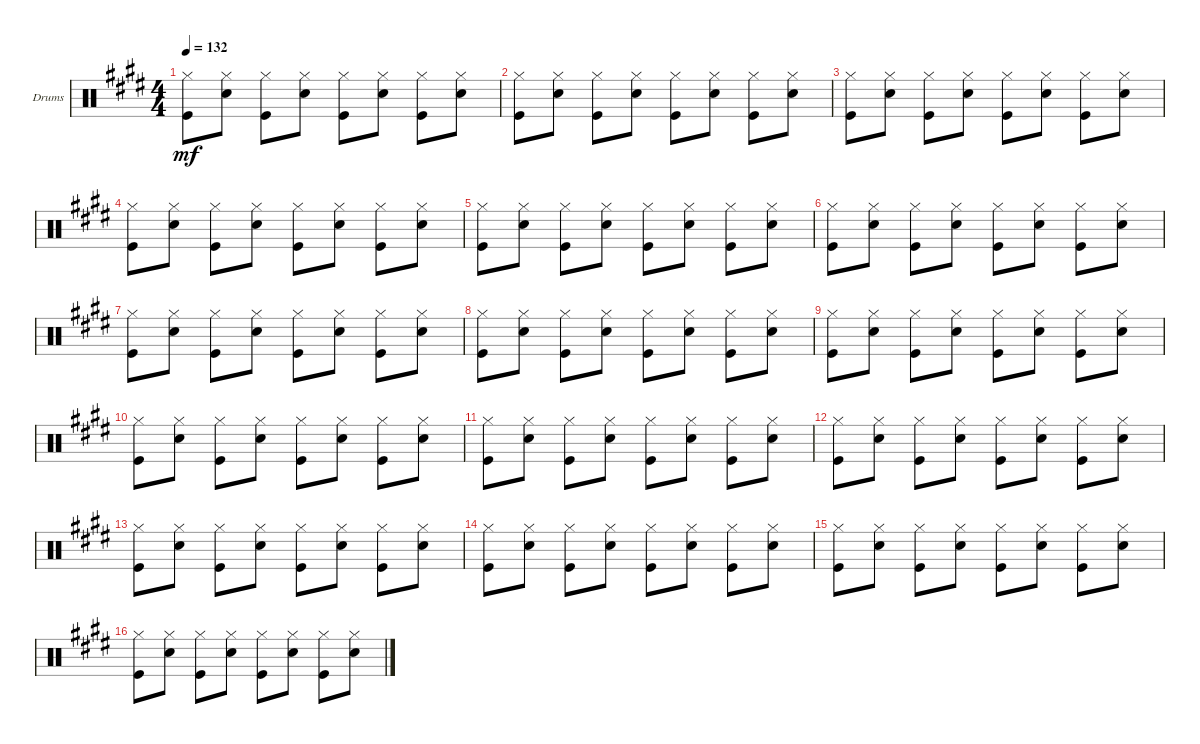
\defaultSystemsLayout 4
\bracketExtendMode groupsimilarinstruments
\firstSystemTrackNameOrientation horizontal
\otherSystemsTrackNameOrientation horizontal
\track ("Drumkit" "Drums") {instrument percussion}
\staff {score}
\articulation defaults
\ts (4 4)
\tempo 132
\clef neutral
\ks c#minor
("Kick (hit)" "Hi-Hat (closed)").8{dy mf} ("Snare (hit) 2" "Hi-Hat (closed)").8 ("Kick (hit)" "Hi-Hat (closed)").8 ("Snare (hit) 2" "Hi-Hat (closed)").8 ("Kick (hit)" "Hi-Hat (closed)").8 ("Snare (hit) 2" "Hi-Hat (closed)").8 ("Kick (hit)" "Hi-Hat (closed)").8 ("Snare (hit) 2" "Hi-Hat (closed)").8 |
("Kick (hit)" "Hi-Hat (closed)").8 ("Snare (hit) 2" "Hi-Hat (closed)").8 ("Kick (hit)" "Hi-Hat (closed)").8 ("Snare (hit) 2" "Hi-Hat (closed)").8 ("Kick (hit)" "Hi-Hat (closed)").8 ("Snare (hit) 2" "Hi-Hat (closed)").8 ("Kick (hit)" "Hi-Hat (closed)").8 ("Snare (hit) 2" "Hi-Hat (closed)").8 |
("Kick (hit)" "Hi-Hat (closed)").8 ("Snare (hit) 2" "Hi-Hat (closed)").8 ("Kick (hit)" "Hi-Hat (closed)").8 ("Snare (hit) 2" "Hi-Hat (closed)").8 ("Kick (hit)" "Hi-Hat (closed)").8 ("Snare (hit) 2" "Hi-Hat (closed)").8 ("Kick (hit)" "Hi-Hat (closed)").8 ("Snare (hit) 2" "Hi-Hat (closed)").8 |
("Kick (hit)" "Hi-Hat (closed)").8 ("Snare (hit) 2" "Hi-Hat (closed)").8 ("Kick (hit)" "Hi-Hat (closed)").8 ("Snare (hit) 2" "Hi-Hat (closed)").8 ("Kick (hit)" "Hi-Hat (closed)").8 ("Snare (hit) 2" "Hi-Hat (closed)").8 ("Kick (hit)" "Hi-Hat (closed)").8 ("Snare (hit) 2" "Hi-Hat (closed)").8 |
("Kick (hit)" "Hi-Hat (closed)").8 ("Snare (hit) 2" "Hi-Hat (closed)").8 ("Kick (hit)" "Hi-Hat (closed)").8 ("Snare (hit) 2" "Hi-Hat (closed)").8 ("Kick (hit)" "Hi-Hat (closed)").8 ("Snare (hit) 2" "Hi-Hat (closed)").8 ("Kick (hit)" "Hi-Hat (closed)").8 ("Snare (hit) 2" "Hi-Hat (closed)").8 |
("Kick (hit)" "Hi-Hat (closed)").8 ("Snare (hit) 2" "Hi-Hat (closed)").8 ("Kick (hit)" "Hi-Hat (closed)").8 ("Snare (hit) 2" "Hi-Hat (closed)").8 ("Kick (hit)" "Hi-Hat (closed)").8 ("Snare (hit) 2" "Hi-Hat (closed)").8 ("Kick (hit)" "Hi-Hat (closed)").8 ("Snare (hit) 2" "Hi-Hat (closed)").8 |
("Kick (hit)" "Hi-Hat (closed)").8 ("Snare (hit) 2" "Hi-Hat (closed)").8 ("Kick (hit)" "Hi-Hat (closed)").8 ("Snare (hit) 2" "Hi-Hat (closed)").8 ("Kick (hit)" "Hi-Hat (closed)").8 ("Snare (hit) 2" "Hi-Hat (closed)").8 ("Kick (hit)" "Hi-Hat (closed)").8 ("Snare (hit) 2" "Hi-Hat (closed)").8 |
("Kick (hit)" "Hi-Hat (closed)").8 ("Snare (hit) 2" "Hi-Hat (closed)").8 ("Kick (hit)" "Hi-Hat (closed)").8 ("Snare (hit) 2" "Hi-Hat (closed)").8 ("Kick (hit)" "Hi-Hat (closed)").8 ("Snare (hit) 2" "Hi-Hat (closed)").8 ("Kick (hit)" "Hi-Hat (closed)").8 ("Snare (hit) 2" "Hi-Hat (closed)").8 |
("Kick (hit)" "Hi-Hat (closed)").8 ("Snare (hit) 2" "Hi-Hat (closed)").8 ("Kick (hit)" "Hi-Hat (closed)").8 ("Snare (hit) 2" "Hi-Hat (closed)").8 ("Kick (hit)" "Hi-Hat (closed)").8 ("Snare (hit) 2" "Hi-Hat (closed)").8 ("Kick (hit)" "Hi-Hat (closed)").8 ("Snare (hit) 2" "Hi-Hat (closed)").8 |
("Kick (hit)" "Hi-Hat (closed)").8 ("Snare (hit) 2" "Hi-Hat (closed)").8 ("Kick (hit)" "Hi-Hat (closed)").8 ("Snare (hit) 2" "Hi-Hat (closed)").8 ("Kick (hit)" "Hi-Hat (closed)").8 ("Snare (hit) 2" "Hi-Hat (closed)").8 ("Kick (hit)" "Hi-Hat (closed)").8 ("Snare (hit) 2" "Hi-Hat (closed)").8 |
("Kick (hit)" "Hi-Hat (closed)").8 ("Snare (hit) 2" "Hi-Hat (closed)").8 ("Kick (hit)" "Hi-Hat (closed)").8 ("Snare (hit) 2" "Hi-Hat (closed)").8 ("Kick (hit)" "Hi-Hat (closed)").8 ("Snare (hit) 2" "Hi-Hat (closed)").8 ("Kick (hit)" "Hi-Hat (closed)").8 ("Snare (hit) 2" "Hi-Hat (closed)").8 |
("Kick (hit)" "Hi-Hat (closed)").8 ("Snare (hit) 2" "Hi-Hat (closed)").8 ("Kick (hit)" "Hi-Hat (closed)").8 ("Snare (hit) 2" "Hi-Hat (closed)").8 ("Kick (hit)" "Hi-Hat (closed)").8 ("Snare (hit) 2" "Hi-Hat (closed)").8 ("Kick (hit)" "Hi-Hat (closed)").8 ("Snare (hit) 2" "Hi-Hat (closed)").8 |
("Kick (hit)" "Hi-Hat (closed)").8 ("Snare (hit) 2" "Hi-Hat (closed)").8 ("Kick (hit)" "Hi-Hat (closed)").8 ("Snare (hit) 2" "Hi-Hat (closed)").8 ("Kick (hit)" "Hi-Hat (closed)").8 ("Snare (hit) 2" "Hi-Hat (closed)").8 ("Kick (hit)" "Hi-Hat (closed)").8 ("Snare (hit) 2" "Hi-Hat (closed)").8 |
("Kick (hit)" "Hi-Hat (closed)").8 ("Snare (hit) 2" "Hi-Hat (closed)").8 ("Kick (hit)" "Hi-Hat (closed)").8 ("Snare (hit) 2" "Hi-Hat (closed)").8 ("Kick (hit)" "Hi-Hat (closed)").8 ("Snare (hit) 2" "Hi-Hat (closed)").8 ("Kick (hit)" "Hi-Hat (closed)").8 ("Snare (hit) 2" "Hi-Hat (closed)").8 |
("Kick (hit)" "Hi-Hat (closed)").8 ("Snare (hit) 2" "Hi-Hat (closed)").8 ("Kick (hit)" "Hi-Hat (closed)").8 ("Snare (hit) 2" "Hi-Hat (closed)").8 ("Kick (hit)" "Hi-Hat (closed)").8 ("Snare (hit) 2" "Hi-Hat (closed)").8 ("Kick (hit)" "Hi-Hat (closed)").8 ("Snare (hit) 2" "Hi-Hat (closed)").8 |
("Kick (hit)" "Hi-Hat (closed)").8 ("Snare (hit) 2" "Hi-Hat (closed)").8 ("Kick (hit)" "Hi-Hat (closed)").8 ("Snare (hit) 2" "Hi-Hat (closed)").8 ("Kick (hit)" "Hi-Hat (closed)").8 ("Snare (hit) 2" "Hi-Hat (closed)").8 ("Kick (hit)" "Hi-Hat (closed)").8 ("Snare (hit) 2" "Hi-Hat (closed)").8
